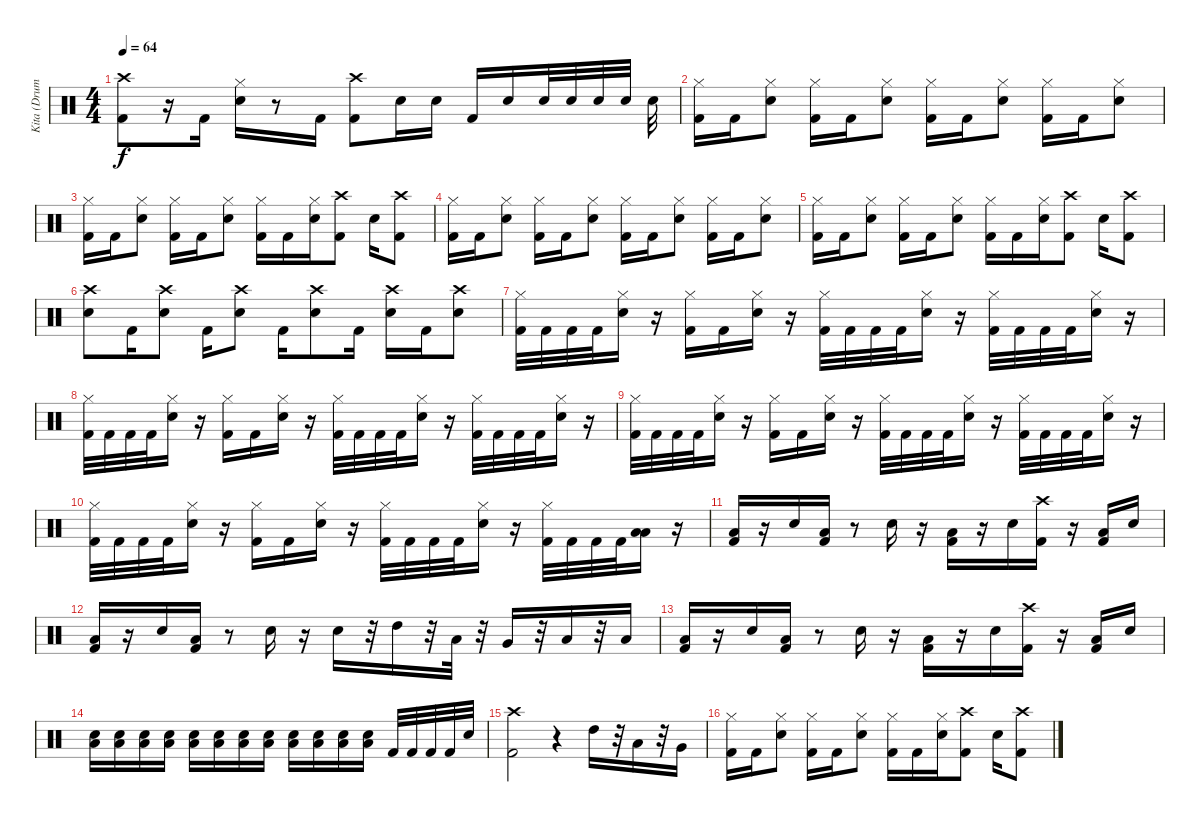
\track ("Kita (Drums)" "Kita (Drum") {instrument percussion}
\staff {score}
\articulation defaults
\ts (4 4)
\tempo 64
\clef neutral
\ks c
("Kick (hit) 2" "Crash high (hit)").8{dy f} r.16 "Kick (hit) 2".16 ("Electric Snare (hit)" "Hi-Hat (closed)").16 r.8 "Kick (hit) 2".16 ("Kick (hit) 2" "Crash high (hit)").8 "Electric Snare (hit)".16 "Electric Snare (hit)".16 "Kick (hit) 2".16 "Electric Snare (hit)".16 "Electric Snare (hit)".32 "Electric Snare (hit)".32 "Electric Snare (hit)".32 "Electric Snare (hit)".32 "Electric Snare (hit)".32 |
("Kick (hit) 2" "Hi-Hat (closed)").16 "Kick (hit) 2".16 ("Electric Snare (hit)" "Hi-Hat (closed)").8 ("Kick (hit) 2" "Hi-Hat (closed)").16 "Kick (hit) 2".16 ("Electric Snare (hit)" "Hi-Hat (closed)").8 ("Kick (hit) 2" "Hi-Hat (closed)").16 "Kick (hit) 2".16 ("Electric Snare (hit)" "Hi-Hat (closed)").8 ("Kick (hit) 2" "Hi-Hat (closed)").16 "Kick (hit) 2".16 ("Electric Snare (hit)" "Hi-Hat (closed)").8 |
("Kick (hit) 2" "Hi-Hat (closed)").16 "Kick (hit) 2".16 ("Electric Snare (hit)" "Hi-Hat (closed)").8 ("Kick (hit) 2" "Hi-Hat (closed)").16 "Kick (hit) 2".16 ("Electric Snare (hit)" "Hi-Hat (closed)").8 ("Kick (hit) 2" "Hi-Hat (closed)").16 "Kick (hit) 2".16 ("Electric Snare (hit)" "Hi-Hat (closed)").16 ("Kick (hit) 2" "Crash high (hit)").8 "Electric Snare (hit)".16 ("Kick (hit) 2" "Crash high (hit)").8 |
("Kick (hit) 2" "Hi-Hat (closed)").16 "Kick (hit) 2".16 ("Electric Snare (hit)" "Hi-Hat (closed)").8 ("Kick (hit) 2" "Hi-Hat (closed)").16 "Kick (hit) 2".16 ("Electric Snare (hit)" "Hi-Hat (closed)").8 ("Kick (hit) 2" "Hi-Hat (closed)").16 "Kick (hit) 2".16 ("Electric Snare (hit)" "Hi-Hat (closed)").8 ("Kick (hit) 2" "Hi-Hat (closed)").16 "Kick (hit) 2".16 ("Electric Snare (hit)" "Hi-Hat (closed)").8 |
("Kick (hit) 2" "Hi-Hat (closed)").16 "Kick (hit) 2".16 ("Electric Snare (hit)" "Hi-Hat (closed)").8 ("Kick (hit) 2" "Hi-Hat (closed)").16 "Kick (hit) 2".16 ("Electric Snare (hit)" "Hi-Hat (closed)").8 ("Kick (hit) 2" "Hi-Hat (closed)").16 "Kick (hit) 2".16 ("Electric Snare (hit)" "Hi-Hat (closed)").16 ("Kick (hit) 2" "Crash high (hit)").8 "Electric Snare (hit)".16 ("Kick (hit) 2" "Crash high (hit)").8 |
("Electric Snare (hit)" "Crash high (hit)").8 "Kick (hit) 2".16 ("Electric Snare (hit)" "Crash high (hit)").8 "Kick (hit) 2".16 ("Electric Snare (hit)" "Crash high (hit)").8 "Kick (hit) 2".16 ("Electric Snare (hit)" "Crash high (hit)").8 "Kick (hit) 2".16 ("Electric Snare (hit)" "Crash high (hit)").16 "Kick (hit) 2".16 ("Electric Snare (hit)" "Crash high (hit)").8 |
("Kick (hit) 2" "Hi-Hat (closed)").32 "Kick (hit) 2".32 "Kick (hit) 2".32 "Kick (hit) 2".32 ("Electric Snare (hit)" "Hi-Hat (closed)").16 r.16 ("Kick (hit) 2" "Hi-Hat (closed)").16 "Kick (hit) 2".16 ("Electric Snare (hit)" "Hi-Hat (closed)").16 r.16 ("Kick (hit) 2" "Hi-Hat (closed)").32 "Kick (hit) 2".32 "Kick (hit) 2".32 "Kick (hit) 2".32 ("Electric Snare (hit)" "Hi-Hat (closed)").16 r.16 ("Kick (hit) 2" "Hi-Hat (closed)").32 "Kick (hit) 2".32 "Kick (hit) 2".32 "Kick (hit) 2".32 ("Electric Snare (hit)" "Hi-Hat (closed)").16 r.16 |
("Kick (hit) 2" "Hi-Hat (closed)").32 "Kick (hit) 2".32 "Kick (hit) 2".32 "Kick (hit) 2".32 ("Electric Snare (hit)" "Hi-Hat (closed)").16 r.16 ("Kick (hit) 2" "Hi-Hat (closed)").16 "Kick (hit) 2".16 ("Electric Snare (hit)" "Hi-Hat (closed)").16 r.16 ("Kick (hit) 2" "Hi-Hat (closed)").32 "Kick (hit) 2".32 "Kick (hit) 2".32 "Kick (hit) 2".32 ("Electric Snare (hit)" "Hi-Hat (closed)").16 r.16 ("Kick (hit) 2" "Hi-Hat (closed)").32 "Kick (hit) 2".32 "Kick (hit) 2".32 "Kick (hit) 2".32 ("Electric Snare (hit)" "Hi-Hat (closed)").16 r.16 |
("Kick (hit) 2" "Hi-Hat (closed)").32 "Kick (hit) 2".32 "Kick (hit) 2".32 "Kick (hit) 2".32 ("Electric Snare (hit)" "Hi-Hat (closed)").16 r.16 ("Kick (hit) 2" "Hi-Hat (closed)").16 "Kick (hit) 2".16 ("Electric Snare (hit)" "Hi-Hat (closed)").16 r.16 ("Kick (hit) 2" "Hi-Hat (closed)").32 "Kick (hit) 2".32 "Kick (hit) 2".32 "Kick (hit) 2".32 ("Electric Snare (hit)" "Hi-Hat (closed)").16 r.16 ("Kick (hit) 2" "Hi-Hat (closed)").32 "Kick (hit) 2".32 "Kick (hit) 2".32 "Kick (hit) 2".32 ("Electric Snare (hit)" "Hi-Hat (closed)").16 r.16 |
("Kick (hit) 2" "Hi-Hat (closed)").32 "Kick (hit) 2".32 "Kick (hit) 2".32 "Kick (hit) 2".32 ("Electric Snare (hit)" "Hi-Hat (closed)").16 r.16 ("Kick (hit) 2" "Hi-Hat (closed)").16 "Kick (hit) 2".16 ("Electric Snare (hit)" "Hi-Hat (closed)").16 r.16 ("Kick (hit) 2" "Hi-Hat (closed)").32 "Kick (hit) 2".32 "Kick (hit) 2".32 "Kick (hit) 2".32 ("Electric Snare (hit)" "Hi-Hat (closed)").16 r.16 ("Kick (hit) 2" "Hi-Hat (closed)").32 "Kick (hit) 2".32 "Kick (hit) 2".32 "Kick (hit) 2".32 ("Low Floor Tom (hit)" "Low Floor Tom (hit)").16 r.16 |
("Kick (hit) 2" "Low Floor Tom (hit)").16 r.16 "Electric Snare (hit)".16 ("Kick (hit) 2" "Low Floor Tom (hit)").16 r.8 "Electric Snare (hit)".16 r.16 ("Kick (hit) 2" "Low Floor Tom (hit)").16 r.16 "Electric Snare (hit)".16 ("Kick (hit) 2" "Crash high (hit)").16 r.16 ("Kick (hit) 2" "Low Floor Tom (hit)").16 "Electric Snare (hit)".16 |
("Kick (hit) 2" "Low Floor Tom (hit)").16 r.16 "Electric Snare (hit)".16 ("Kick (hit) 2" "Low Floor Tom (hit)").16 r.8 "Electric Snare (hit)".16 r.16 "Electric Snare (hit)".16 r.32 "High Tom (hit)".16 r.32 "Low Tom (hit)".32 r.32 "Very Low Tom (hit)".16 r.32 "Low Floor Tom (hit)".16 r.32 "Low Floor Tom (hit)".16 |
("Kick (hit) 2" "Low Floor Tom (hit)").16 r.16 "Electric Snare (hit)".16 ("Kick (hit) 2" "Low Floor Tom (hit)").16 r.8 "Electric Snare (hit)".16 r.16 ("Kick (hit) 2" "Low Floor Tom (hit)").16 r.16 "Electric Snare (hit)".16 ("Kick (hit) 2" "Crash high (hit)").16 r.16 ("Kick (hit) 2" "Low Floor Tom (hit)").16 "Electric Snare (hit)".16 |
("Electric Snare (hit)" "Low Floor Tom (hit)").16 ("Electric Snare (hit)" "Low Floor Tom (hit)").16 ("Electric Snare (hit)" "Low Floor Tom (hit)").16 ("Electric Snare (hit)" "Low Floor Tom (hit)").16 ("Electric Snare (hit)" "Low Floor Tom (hit)").16 ("Electric Snare (hit)" "Low Floor Tom (hit)").16 ("Electric Snare (hit)" "Low Floor Tom (hit)").16 ("Electric Snare (hit)" "Low Floor Tom (hit)").16 ("Electric Snare (hit)" "Low Floor Tom (hit)").16 ("Electric Snare (hit)" "Low Floor Tom (hit)").16 ("Electric Snare (hit)" "Low Floor Tom (hit)").16 ("Electric Snare (hit)" "Low Floor Tom (hit)").16 "Kick (hit) 2".32 "Kick (hit) 2".32 "Kick (hit) 2".32 "Kick (hit) 2".32 "Electric Snare (hit)".32 |
("Kick (hit) 2" "Crash high (hit)").2 r.4 "High Tom (hit)".16 r.32 "Low Tom (hit)".16 r.32 "Very Low Tom (hit)".16 |
("Kick (hit) 2" "Hi-Hat (closed)").16 "Kick (hit) 2".16 ("Electric Snare (hit)" "Hi-Hat (closed)").8 ("Kick (hit) 2" "Hi-Hat (closed)").16 "Kick (hit) 2".16 ("Electric Snare (hit)" "Hi-Hat (closed)").8 ("Kick (hit) 2" "Hi-Hat (closed)").16 "Kick (hit) 2".16 ("Electric Snare (hit)" "Hi-Hat (closed)").16 ("Kick (hit) 2" "Crash high (hit)").8 "Electric Snare (hit)".16 ("Kick (hit) 2" "Crash high (hit)").8
